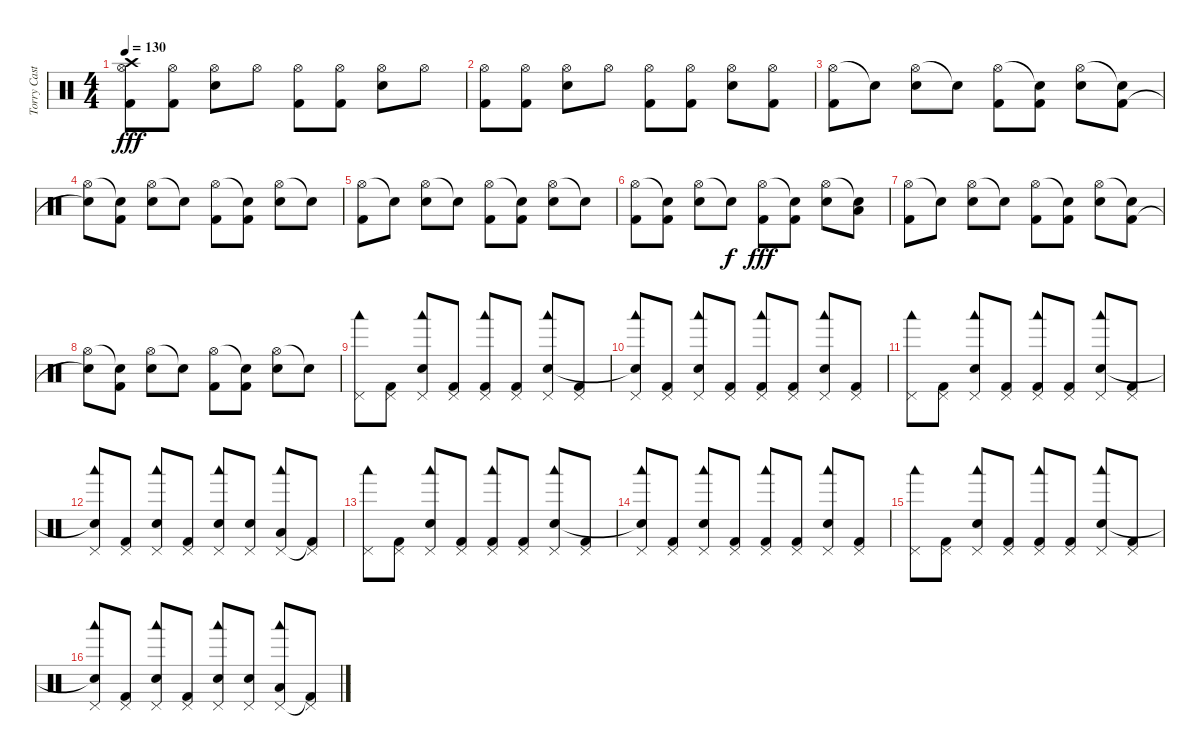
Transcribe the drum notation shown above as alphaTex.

\track ("Torry Castellano" "Torry Cast") {instrument percussion}
\staff {score}
\articulation defaults
\ts (4 4)
\tempo 130
\clef neutral
\ks c
("Crash high (hit)" "Hi-Hat (open)" "Kick (hit) 2").8{dy fff} ("Hi-Hat (open)" "Kick (hit) 2").8 ("Hi-Hat (open)" "Electric Snare (hit)").8 "Hi-Hat (open)".8 ("Hi-Hat (open)" "Kick (hit) 2").8 ("Hi-Hat (open)" "Kick (hit) 2").8 ("Hi-Hat (open)" "Electric Snare (hit)").8 "Hi-Hat (open)".8 |
("Hi-Hat (open)" "Kick (hit) 2").8 ("Hi-Hat (open)" "Kick (hit) 2").8 ("Hi-Hat (open)" "Electric Snare (hit)").8 "Hi-Hat (open)".8 ("Hi-Hat (open)" "Kick (hit) 2").8 ("Hi-Hat (open)" "Kick (hit) 2").8 ("Hi-Hat (open)" "Electric Snare (hit)").8 ("Hi-Hat (open)" "Kick (hit) 2").8 |
("Hi-Hat (open)" "Kick (hit) 2").8 "Snare (hit)"{t}.8 ("Hi-Hat (open)" "Electric Snare (hit)").8 "Snare (hit)"{t}.8 ("Hi-Hat (open)" "Kick (hit) 2").8 ("Snare (hit)"{t} "Kick (hit) 2").8 ("Hi-Hat (open)" "Electric Snare (hit)").8 ("Snare (hit)"{t} "Kick (hit) 2").8 |
("Hi-Hat (open)" "Snare (hit)"{t}).8 ("Snare (hit)"{t} "Kick (hit) 2").8 ("Hi-Hat (open)" "Electric Snare (hit)").8 "Snare (hit)"{t}.8 ("Hi-Hat (open)" "Kick (hit) 2").8 ("Snare (hit)"{t} "Kick (hit) 2").8 ("Hi-Hat (open)" "Electric Snare (hit)").8 "Snare (hit)"{t}.8 |
("Hi-Hat (open)" "Kick (hit) 2").8 "Snare (hit)"{t}.8 ("Hi-Hat (open)" "Electric Snare (hit)").8 "Snare (hit)"{t}.8 ("Hi-Hat (open)" "Kick (hit) 2").8 ("Snare (hit)"{t} "Kick (hit) 2").8 ("Hi-Hat (open)" "Electric Snare (hit)").8 "Snare (hit)"{t}.8 |
("Hi-Hat (open)" "Kick (hit) 2").8 ("Snare (hit)"{t} "Kick (hit) 2").8 ("Hi-Hat (open)" "Electric Snare (hit)").8 "Snare (hit)"{t}.8{dy f} ("Hi-Hat (open)" "Kick (hit) 2").8{dy fff} ("Snare (hit)"{t} "Kick (hit) 2").8 ("Hi-Hat (open)" "Electric Snare (hit)").8 ("Snare (hit)"{t} "Low Floor Tom (hit)").8 |
("Hi-Hat (open)" "Kick (hit) 2").8 "Snare (hit)"{t}.8 ("Hi-Hat (open)" "Electric Snare (hit)").8 "Snare (hit)"{t}.8 ("Hi-Hat (open)" "Kick (hit) 2").8 ("Snare (hit)"{t} "Kick (hit) 2").8 ("Hi-Hat (open)" "Electric Snare (hit)").8 ("Snare (hit)"{t} "Kick (hit) 2").8 |
("Hi-Hat (open)" "Snare (hit)"{t}).8 ("Snare (hit)"{t} "Kick (hit) 2").8 ("Hi-Hat (open)" "Electric Snare (hit)").8 "Snare (hit)"{t}.8 ("Hi-Hat (open)" "Kick (hit) 2").8 ("Snare (hit)"{t} "Kick (hit) 2").8 ("Hi-Hat (open)" "Electric Snare (hit)").8 "Snare (hit)"{t}.8 |
("Woodblock low (hit)" "Pedal Hi-Hat (hit)").8 ("Pedal Hi-Hat (hit)" "Kick (hit) 2").8 ("Woodblock low (hit)" "Pedal Hi-Hat (hit)" "Electric Snare (hit)").8 ("Pedal Hi-Hat (hit)" "Kick (hit) 2").8 ("Woodblock low (hit)" "Pedal Hi-Hat (hit)" "Kick (hit) 2").8 ("Pedal Hi-Hat (hit)" "Kick (hit) 2").8 ("Woodblock low (hit)" "Pedal Hi-Hat (hit)" "Electric Snare (hit)").8 ("Pedal Hi-Hat (hit)" "Kick (hit) 2").8 |
("Woodblock low (hit)" "Pedal Hi-Hat (hit)" "Snare (hit)"{t}).8 ("Pedal Hi-Hat (hit)" "Kick (hit) 2").8 ("Woodblock low (hit)" "Pedal Hi-Hat (hit)" "Electric Snare (hit)").8 ("Pedal Hi-Hat (hit)" "Kick (hit) 2").8 ("Woodblock low (hit)" "Pedal Hi-Hat (hit)" "Kick (hit) 2").8 ("Pedal Hi-Hat (hit)" "Kick (hit) 2").8 ("Woodblock low (hit)" "Pedal Hi-Hat (hit)" "Electric Snare (hit)").8 ("Pedal Hi-Hat (hit)" "Kick (hit) 2").8 |
("Woodblock low (hit)" "Pedal Hi-Hat (hit)").8 ("Pedal Hi-Hat (hit)" "Kick (hit) 2").8 ("Woodblock low (hit)" "Pedal Hi-Hat (hit)" "Electric Snare (hit)").8 ("Pedal Hi-Hat (hit)" "Kick (hit) 2").8 ("Woodblock low (hit)" "Pedal Hi-Hat (hit)" "Kick (hit) 2").8 ("Pedal Hi-Hat (hit)" "Kick (hit) 2").8 ("Woodblock low (hit)" "Pedal Hi-Hat (hit)" "Electric Snare (hit)").8 ("Pedal Hi-Hat (hit)" "Kick (hit) 2").8 |
("Woodblock low (hit)" "Pedal Hi-Hat (hit)" "Snare (hit)"{t}).8 ("Pedal Hi-Hat (hit)" "Kick (hit) 2").8 ("Woodblock low (hit)" "Pedal Hi-Hat (hit)" "Electric Snare (hit)").8 ("Pedal Hi-Hat (hit)" "Kick (hit) 2").8 ("Woodblock low (hit)" "Pedal Hi-Hat (hit)" "Electric Snare (hit)").8 ("Pedal Hi-Hat (hit)" "Electric Snare (hit)").8 ("Woodblock low (hit)" "Pedal Hi-Hat (hit)" "Low Floor Tom (hit)").8 ("Pedal Hi-Hat (hit)" "Kick (hit) 2"{t}).8 |
("Woodblock low (hit)" "Pedal Hi-Hat (hit)").8 ("Pedal Hi-Hat (hit)" "Kick (hit) 2").8 ("Woodblock low (hit)" "Pedal Hi-Hat (hit)" "Electric Snare (hit)").8 ("Pedal Hi-Hat (hit)" "Kick (hit) 2").8 ("Woodblock low (hit)" "Pedal Hi-Hat (hit)" "Kick (hit) 2").8 ("Pedal Hi-Hat (hit)" "Kick (hit) 2").8 ("Woodblock low (hit)" "Pedal Hi-Hat (hit)" "Electric Snare (hit)").8 ("Pedal Hi-Hat (hit)" "Kick (hit) 2").8 |
("Woodblock low (hit)" "Pedal Hi-Hat (hit)" "Snare (hit)"{t}).8 ("Pedal Hi-Hat (hit)" "Kick (hit) 2").8 ("Woodblock low (hit)" "Pedal Hi-Hat (hit)" "Electric Snare (hit)").8 ("Pedal Hi-Hat (hit)" "Kick (hit) 2").8 ("Woodblock low (hit)" "Pedal Hi-Hat (hit)" "Kick (hit) 2").8 ("Pedal Hi-Hat (hit)" "Kick (hit) 2").8 ("Woodblock low (hit)" "Pedal Hi-Hat (hit)" "Electric Snare (hit)").8 ("Pedal Hi-Hat (hit)" "Kick (hit) 2").8 |
("Woodblock low (hit)" "Pedal Hi-Hat (hit)").8 ("Pedal Hi-Hat (hit)" "Kick (hit) 2").8 ("Woodblock low (hit)" "Pedal Hi-Hat (hit)" "Electric Snare (hit)").8 ("Pedal Hi-Hat (hit)" "Kick (hit) 2").8 ("Woodblock low (hit)" "Pedal Hi-Hat (hit)" "Kick (hit) 2").8 ("Pedal Hi-Hat (hit)" "Kick (hit) 2").8 ("Woodblock low (hit)" "Pedal Hi-Hat (hit)" "Electric Snare (hit)").8 ("Pedal Hi-Hat (hit)" "Kick (hit) 2").8 |
("Woodblock low (hit)" "Pedal Hi-Hat (hit)" "Snare (hit)"{t}).8 ("Pedal Hi-Hat (hit)" "Kick (hit) 2").8 ("Woodblock low (hit)" "Pedal Hi-Hat (hit)" "Electric Snare (hit)").8 ("Pedal Hi-Hat (hit)" "Kick (hit) 2").8 ("Woodblock low (hit)" "Pedal Hi-Hat (hit)" "Electric Snare (hit)").8 ("Pedal Hi-Hat (hit)" "Electric Snare (hit)").8 ("Woodblock low (hit)" "Pedal Hi-Hat (hit)" "Low Floor Tom (hit)").8 ("Pedal Hi-Hat (hit)" "Kick (hit) 2"{t}).8
